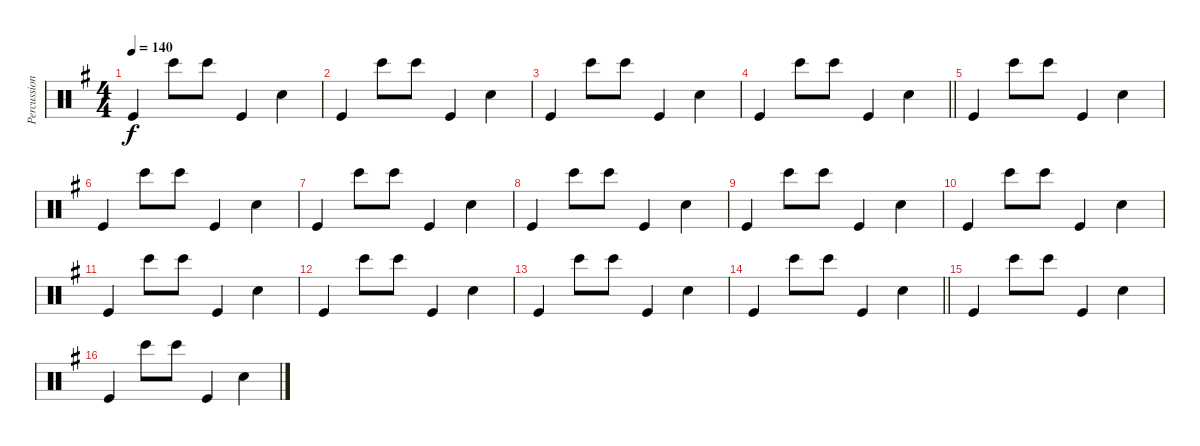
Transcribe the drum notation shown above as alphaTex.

\track ("Percussion" "Percussion") {instrument percussion}
\staff {score}
\articulation defaults
\ts (4 4)
\tempo 140
\clef neutral
\ks g "Kick (hit)".4{dy f} "Bongo High (hit)".8 "Bongo High (hit)".8 "Kick (hit)".4 "Electric Snare (hit)".4
|
"Kick (hit)".4 "Bongo High (hit)".8 "Bongo High (hit)".8 "Kick (hit)".4 "Electric Snare (hit)".4 |
"Kick (hit)".4 "Bongo High (hit)".8 "Bongo High (hit)".8 "Kick (hit)".4 "Electric Snare (hit)".4 |
\barLineRight lightlight "Kick (hit)".4 "Bongo High (hit)".8 "Bongo High (hit)".8 "Kick (hit)".4 "Electric Snare (hit)".4
|
"Kick (hit)".4 "Bongo High (hit)".8 "Bongo High (hit)".8 "Kick (hit)".4 "Electric Snare (hit)".4 |
"Kick (hit)".4 "Bongo High (hit)".8 "Bongo High (hit)".8 "Kick (hit)".4 "Electric Snare (hit)".4 |
"Kick (hit)".4 "Bongo High (hit)".8 "Bongo High (hit)".8 "Kick (hit)".4 "Electric Snare (hit)".4 |
"Kick (hit)".4 "Bongo High (hit)".8 "Bongo High (hit)".8 "Kick (hit)".4 "Electric Snare (hit)".4 |
"Kick (hit)".4 "Bongo High (hit)".8 "Bongo High (hit)".8 "Kick (hit)".4 "Electric Snare (hit)".4 |
"Kick (hit)".4 "Bongo High (hit)".8 "Bongo High (hit)".8 "Kick (hit)".4 "Electric Snare (hit)".4 |
"Kick (hit)".4 "Bongo High (hit)".8 "Bongo High (hit)".8 "Kick (hit)".4 "Electric Snare (hit)".4 |
"Kick (hit)".4 "Bongo High (hit)".8 "Bongo High (hit)".8 "Kick (hit)".4 "Electric Snare (hit)".4 |
"Kick (hit)".4 "Bongo High (hit)".8 "Bongo High (hit)".8 "Kick (hit)".4 "Electric Snare (hit)".4 |
\barLineRight lightlight "Kick (hit)".4 "Bongo High (hit)".8 "Bongo High (hit)".8 "Kick (hit)".4 "Electric Snare (hit)".4
|
"Kick (hit)".4 "Bongo High (hit)".8 "Bongo High (hit)".8 "Kick (hit)".4 "Electric Snare (hit)".4 |
"Kick (hit)".4 "Bongo High (hit)".8 "Bongo High (hit)".8 "Kick (hit)".4 "Electric Snare (hit)".4
